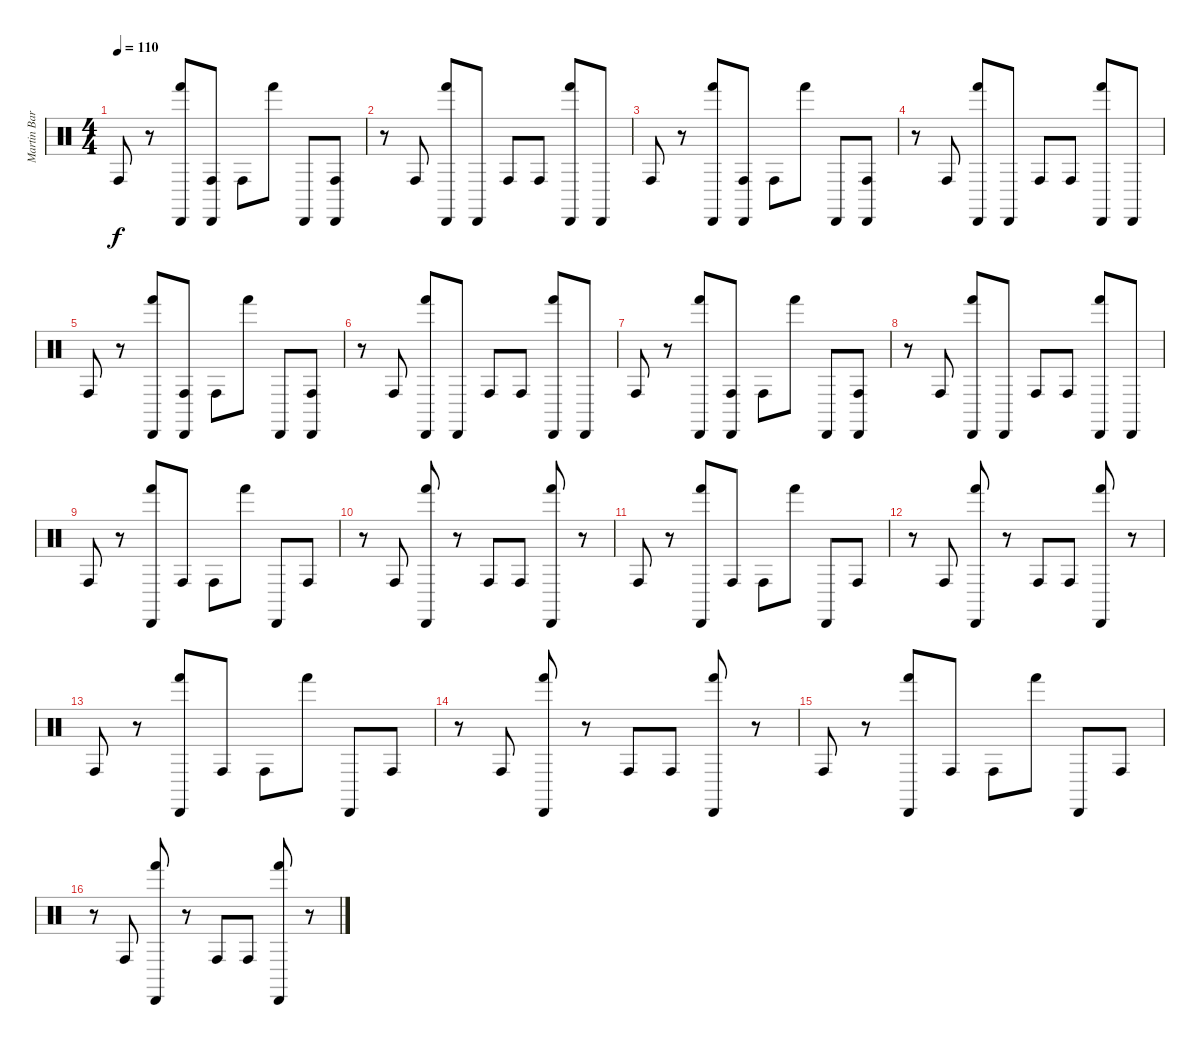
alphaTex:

\track ("Martin Barret" "Martin Bar") {instrument percussion}
\staff {score}
\articulation defaults
\ts (4 4)
\tempo 110
\clef neutral
\ks c "Conga high (hit)".8{dy f}
r.8 ("Cabasa (hit)" "Hand (hit)").8 ("Cabasa (hit)" "Conga high (hit)").8 "Conga high (hit)".8 "Hand (hit)".8 "Cabasa (hit)".8 ("Cabasa (hit)" "Conga high (hit)").8 |
r.8 "Conga high (hit)".8 ("Cabasa (hit)" "Hand (hit)").8 "Cabasa (hit)".8 "Conga high (hit)".8 "Conga high (hit)".8 ("Cabasa (hit)" "Hand (hit)").8 "Cabasa (hit)".8 |
"Conga high (hit)".8 r.8 ("Cabasa (hit)" "Hand (hit)").8 ("Cabasa (hit)" "Conga high (hit)").8 "Conga high (hit)".8 "Hand (hit)".8 "Cabasa (hit)".8 ("Cabasa (hit)" "Conga high (hit)").8 |
r.8 "Conga high (hit)".8 ("Cabasa (hit)" "Hand (hit)").8 "Cabasa (hit)".8 "Conga high (hit)".8 "Conga high (hit)".8 ("Cabasa (hit)" "Hand (hit)").8 "Cabasa (hit)".8 |
"Conga high (hit)".8 r.8 ("Cabasa (hit)" "Hand (hit)").8 ("Cabasa (hit)" "Conga high (hit)").8 "Conga high (hit)".8 "Hand (hit)".8 "Cabasa (hit)".8 ("Cabasa (hit)" "Conga high (hit)").8 |
r.8 "Conga high (hit)".8 ("Cabasa (hit)" "Hand (hit)").8 "Cabasa (hit)".8 "Conga high (hit)".8 "Conga high (hit)".8 ("Cabasa (hit)" "Hand (hit)").8 "Cabasa (hit)".8 |
"Conga high (hit)".8 r.8 ("Cabasa (hit)" "Hand (hit)").8 ("Cabasa (hit)" "Conga high (hit)").8 "Conga high (hit)".8 "Hand (hit)".8 "Cabasa (hit)".8 ("Cabasa (hit)" "Conga high (hit)").8 |
r.8 "Conga high (hit)".8 ("Cabasa (hit)" "Hand (hit)").8 "Cabasa (hit)".8 "Conga high (hit)".8 "Conga high (hit)".8 ("Cabasa (hit)" "Hand (hit)").8 "Cabasa (hit)".8 |
"Conga high (hit)".8 r.8 ("Cabasa (hit)" "Hand (hit)").8 "Conga high (hit)".8 "Conga high (hit)".8 "Hand (hit)".8 "Cabasa (hit)".8 "Conga high (hit)".8 |
r.8 "Conga high (hit)".8 ("Cabasa (hit)" "Hand (hit)").8 r.8 "Conga high (hit)".8 "Conga high (hit)".8 ("Cabasa (hit)" "Hand (hit)").8 r.8 |
"Conga high (hit)".8 r.8 ("Cabasa (hit)" "Hand (hit)").8 "Conga high (hit)".8 "Conga high (hit)".8 "Hand (hit)".8 "Cabasa (hit)".8 "Conga high (hit)".8 |
r.8 "Conga high (hit)".8 ("Cabasa (hit)" "Hand (hit)").8 r.8 "Conga high (hit)".8 "Conga high (hit)".8 ("Cabasa (hit)" "Hand (hit)").8 r.8 |
"Conga high (hit)".8 r.8 ("Cabasa (hit)" "Hand (hit)").8 "Conga high (hit)".8 "Conga high (hit)".8 "Hand (hit)".8 "Cabasa (hit)".8 "Conga high (hit)".8 |
r.8 "Conga high (hit)".8 ("Cabasa (hit)" "Hand (hit)").8 r.8 "Conga high (hit)".8 "Conga high (hit)".8 ("Cabasa (hit)" "Hand (hit)").8 r.8 |
"Conga high (hit)".8 r.8 ("Cabasa (hit)" "Hand (hit)").8 "Conga high (hit)".8 "Conga high (hit)".8 "Hand (hit)".8 "Cabasa (hit)".8 "Conga high (hit)".8 |
r.8 "Conga high (hit)".8 ("Cabasa (hit)" "Hand (hit)").8 r.8 "Conga high (hit)".8 "Conga high (hit)".8 ("Cabasa (hit)" "Hand (hit)").8 r.8
